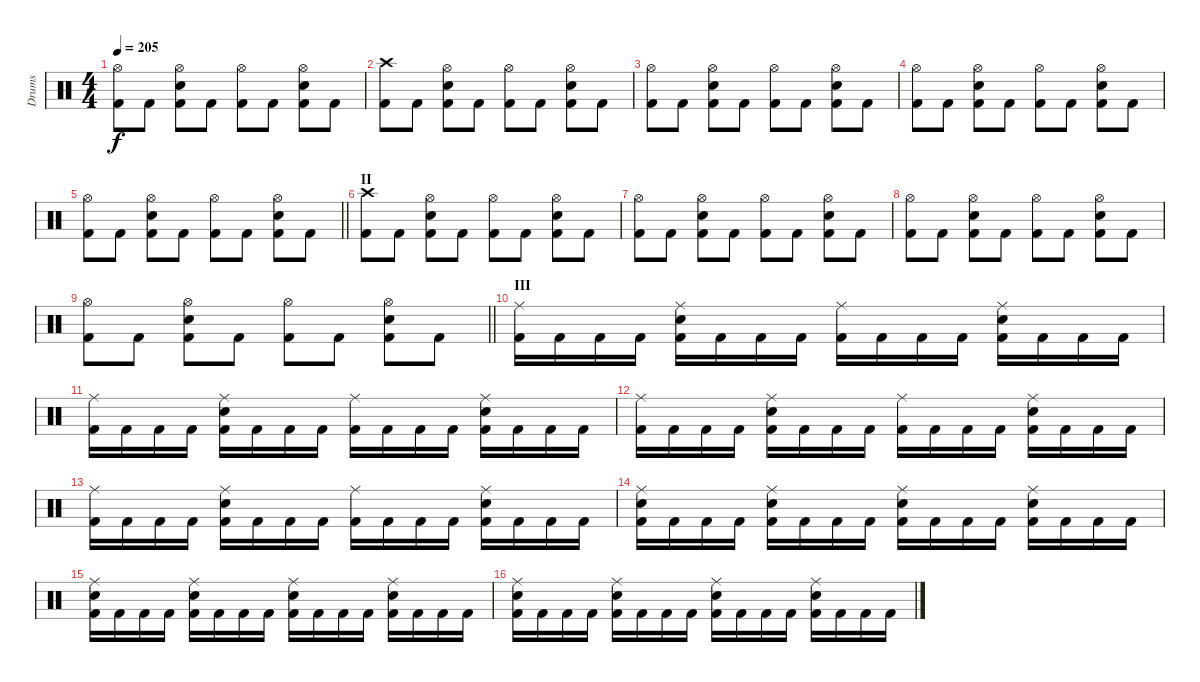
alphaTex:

\track ("Drums" "Drums") {instrument percussion}
\staff {score}
\articulation defaults
\ts (4 4)
\tempo 205
\clef neutral
\ks c
("Hi-Hat (open)" "Kick (hit) 2").8{dy f} "Kick (hit) 2".8 ("Hi-Hat (open)" "Electric Snare (hit)" "Kick (hit) 2").8 "Kick (hit) 2".8 ("Hi-Hat (open)" "Kick (hit) 2").8 "Kick (hit) 2".8 ("Hi-Hat (open)" "Electric Snare (hit)" "Kick (hit) 2").8 "Kick (hit) 2".8 |
("Crash high (hit)" "Kick (hit) 2").8 "Kick (hit) 2".8 ("Hi-Hat (open)" "Electric Snare (hit)" "Kick (hit) 2").8 "Kick (hit) 2".8 ("Hi-Hat (open)" "Kick (hit) 2").8 "Kick (hit) 2".8 ("Hi-Hat (open)" "Electric Snare (hit)" "Kick (hit) 2").8 "Kick (hit) 2".8 |
("Hi-Hat (open)" "Kick (hit) 2").8 "Kick (hit) 2".8 ("Hi-Hat (open)" "Electric Snare (hit)" "Kick (hit) 2").8 "Kick (hit) 2".8 ("Hi-Hat (open)" "Kick (hit) 2").8 "Kick (hit) 2".8 ("Hi-Hat (open)" "Electric Snare (hit)" "Kick (hit) 2").8 "Kick (hit) 2".8 |
("Hi-Hat (open)" "Kick (hit) 2").8 "Kick (hit) 2".8 ("Hi-Hat (open)" "Electric Snare (hit)" "Kick (hit) 2").8 "Kick (hit) 2".8 ("Hi-Hat (open)" "Kick (hit) 2").8 "Kick (hit) 2".8 ("Hi-Hat (open)" "Electric Snare (hit)" "Kick (hit) 2").8 "Kick (hit) 2".8 |
\barLineRight lightlight
("Hi-Hat (open)" "Kick (hit) 2").8 "Kick (hit) 2".8 ("Hi-Hat (open)" "Electric Snare (hit)" "Kick (hit) 2").8 "Kick (hit) 2".8 ("Hi-Hat (open)" "Kick (hit) 2").8 "Kick (hit) 2".8 ("Hi-Hat (open)" "Electric Snare (hit)" "Kick (hit) 2").8 "Kick (hit) 2".8 |
\section ("" "II")
("Crash high (hit)" "Kick (hit) 2").8 "Kick (hit) 2".8 ("Hi-Hat (open)" "Electric Snare (hit)" "Kick (hit) 2").8 "Kick (hit) 2".8 ("Hi-Hat (open)" "Kick (hit) 2").8 "Kick (hit) 2".8 ("Hi-Hat (open)" "Electric Snare (hit)" "Kick (hit) 2").8 "Kick (hit) 2".8 |
("Hi-Hat (open)" "Kick (hit) 2").8 "Kick (hit) 2".8 ("Hi-Hat (open)" "Electric Snare (hit)" "Kick (hit) 2").8 "Kick (hit) 2".8 ("Hi-Hat (open)" "Kick (hit) 2").8 "Kick (hit) 2".8 ("Hi-Hat (open)" "Electric Snare (hit)" "Kick (hit) 2").8 "Kick (hit) 2".8 |
("Hi-Hat (open)" "Kick (hit) 2").8 "Kick (hit) 2".8 ("Hi-Hat (open)" "Electric Snare (hit)" "Kick (hit) 2").8 "Kick (hit) 2".8 ("Hi-Hat (open)" "Kick (hit) 2").8 "Kick (hit) 2".8 ("Hi-Hat (open)" "Electric Snare (hit)" "Kick (hit) 2").8 "Kick (hit) 2".8 |
\barLineRight lightlight
("Hi-Hat (open)" "Kick (hit) 2").8 "Kick (hit) 2".8 ("Hi-Hat (open)" "Electric Snare (hit)" "Kick (hit) 2").8 "Kick (hit) 2".8 ("Hi-Hat (open)" "Kick (hit) 2").8 "Kick (hit) 2".8 ("Hi-Hat (open)" "Electric Snare (hit)" "Kick (hit) 2").8 "Kick (hit) 2".8 |
\section ("" "III")
("Ride (middle)" "Kick (hit) 2").16 "Kick (hit) 2".16 "Kick (hit) 2".16 "Kick (hit) 2".16 ("Ride (middle)" "Electric Snare (hit)" "Kick (hit) 2").16 "Kick (hit) 2".16 "Kick (hit) 2".16 "Kick (hit) 2".16 ("Ride (middle)" "Kick (hit) 2").16 "Kick (hit) 2".16 "Kick (hit) 2".16 "Kick (hit) 2".16 ("Ride (middle)" "Electric Snare (hit)" "Kick (hit) 2").16 "Kick (hit) 2".16 "Kick (hit) 2".16 "Kick (hit) 2".16 |
("Ride (middle)" "Kick (hit) 2").16 "Kick (hit) 2".16 "Kick (hit) 2".16 "Kick (hit) 2".16 ("Ride (middle)" "Electric Snare (hit)" "Kick (hit) 2").16 "Kick (hit) 2".16 "Kick (hit) 2".16 "Kick (hit) 2".16 ("Ride (middle)" "Kick (hit) 2").16 "Kick (hit) 2".16 "Kick (hit) 2".16 "Kick (hit) 2".16 ("Ride (middle)" "Electric Snare (hit)" "Kick (hit) 2").16 "Kick (hit) 2".16 "Kick (hit) 2".16 "Kick (hit) 2".16 |
("Ride (middle)" "Kick (hit) 2").16 "Kick (hit) 2".16 "Kick (hit) 2".16 "Kick (hit) 2".16 ("Ride (middle)" "Electric Snare (hit)" "Kick (hit) 2").16 "Kick (hit) 2".16 "Kick (hit) 2".16 "Kick (hit) 2".16 ("Ride (middle)" "Kick (hit) 2").16 "Kick (hit) 2".16 "Kick (hit) 2".16 "Kick (hit) 2".16 ("Ride (middle)" "Electric Snare (hit)" "Kick (hit) 2").16 "Kick (hit) 2".16 "Kick (hit) 2".16 "Kick (hit) 2".16 |
("Ride (middle)" "Kick (hit) 2").16 "Kick (hit) 2".16 "Kick (hit) 2".16 "Kick (hit) 2".16 ("Ride (middle)" "Electric Snare (hit)" "Kick (hit) 2").16 "Kick (hit) 2".16 "Kick (hit) 2".16 "Kick (hit) 2".16 ("Ride (middle)" "Kick (hit) 2").16 "Kick (hit) 2".16 "Kick (hit) 2".16 "Kick (hit) 2".16 ("Ride (middle)" "Electric Snare (hit)" "Kick (hit) 2").16 "Kick (hit) 2".16 "Kick (hit) 2".16 "Kick (hit) 2".16 |
("Ride (middle)" "Electric Snare (hit)" "Kick (hit) 2").16 "Kick (hit) 2".16 "Kick (hit) 2".16 "Kick (hit) 2".16 ("Ride (middle)" "Electric Snare (hit)" "Kick (hit) 2").16 "Kick (hit) 2".16 "Kick (hit) 2".16 "Kick (hit) 2".16 ("Ride (middle)" "Electric Snare (hit)" "Kick (hit) 2").16 "Kick (hit) 2".16 "Kick (hit) 2".16 "Kick (hit) 2".16 ("Ride (middle)" "Electric Snare (hit)" "Kick (hit) 2").16 "Kick (hit) 2".16 "Kick (hit) 2".16 "Kick (hit) 2".16 |
("Ride (middle)" "Electric Snare (hit)" "Kick (hit) 2").16 "Kick (hit) 2".16 "Kick (hit) 2".16 "Kick (hit) 2".16 ("Ride (middle)" "Electric Snare (hit)" "Kick (hit) 2").16 "Kick (hit) 2".16 "Kick (hit) 2".16 "Kick (hit) 2".16 ("Ride (middle)" "Electric Snare (hit)" "Kick (hit) 2").16 "Kick (hit) 2".16 "Kick (hit) 2".16 "Kick (hit) 2".16 ("Ride (middle)" "Electric Snare (hit)" "Kick (hit) 2").16 "Kick (hit) 2".16 "Kick (hit) 2".16 "Kick (hit) 2".16 |
("Ride (middle)" "Electric Snare (hit)" "Kick (hit) 2").16 "Kick (hit) 2".16 "Kick (hit) 2".16 "Kick (hit) 2".16 ("Ride (middle)" "Electric Snare (hit)" "Kick (hit) 2").16 "Kick (hit) 2".16 "Kick (hit) 2".16 "Kick (hit) 2".16 ("Ride (middle)" "Electric Snare (hit)" "Kick (hit) 2").16 "Kick (hit) 2".16 "Kick (hit) 2".16 "Kick (hit) 2".16 ("Ride (middle)" "Electric Snare (hit)" "Kick (hit) 2").16 "Kick (hit) 2".16 "Kick (hit) 2".16 "Kick (hit) 2".16
